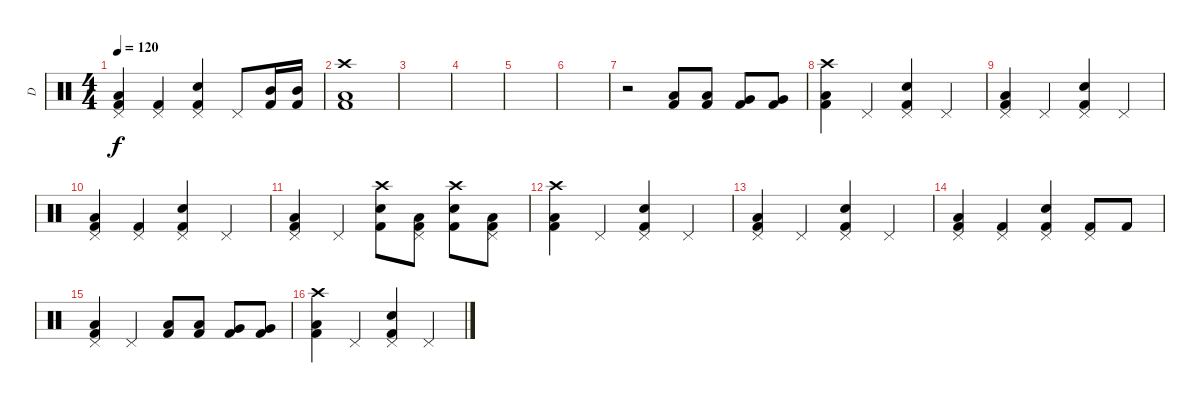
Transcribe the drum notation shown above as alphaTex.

\track ("D" "D") {instrument percussion}
\staff {score}
\articulation defaults
\ts (4 4)
\tempo 120
\clef neutral
\ks c
("Pedal Hi-Hat (hit)" "Low Floor Tom (hit)" "Kick (hit) 2").4{dy f} ("Pedal Hi-Hat (hit)" "Kick (hit) 2").4 ("Pedal Hi-Hat (hit)" "Snare (hit) 2" "Kick (hit) 2").4 "Pedal Hi-Hat (hit)".8 ("Mid Tom (hit)" "Kick (hit) 2").16 ("Mid Tom (hit)" "Kick (hit) 2").16 |
("Crash high (hit)" "Low Floor Tom (hit)" "Kick (hit) 2").1 |
|
|
|
|
r.2 ("Low Tom (hit)" "Kick (hit) 2").8 ("Low Tom (hit)" "Kick (hit) 2").8 ("Very Low Tom (hit)" "Kick (hit) 2").8 ("Very Low Tom (hit)" "Kick (hit) 2").8 |
("Crash high (hit)" "Low Floor Tom (hit)" "Kick (hit) 2").4 "Pedal Hi-Hat (hit)".4 ("Pedal Hi-Hat (hit)" "Snare (hit) 2" "Kick (hit) 2").4 "Pedal Hi-Hat (hit)".4 |
("Pedal Hi-Hat (hit)" "Low Floor Tom (hit)" "Kick (hit) 2").4 "Pedal Hi-Hat (hit)".4 ("Pedal Hi-Hat (hit)" "Snare (hit) 2" "Kick (hit) 2").4 "Pedal Hi-Hat (hit)".4 |
("Pedal Hi-Hat (hit)" "Low Floor Tom (hit)" "Kick (hit) 2").4 ("Pedal Hi-Hat (hit)" "Kick (hit) 2").4 ("Pedal Hi-Hat (hit)" "Snare (hit) 2" "Kick (hit) 2").4 "Pedal Hi-Hat (hit)".4 |
("Pedal Hi-Hat (hit)" "Low Floor Tom (hit)" "Kick (hit) 2").4 "Pedal Hi-Hat (hit)".4 ("Crash high (hit)" "Snare (hit) 2" "Kick (hit) 2").8 ("Pedal Hi-Hat (hit)" "Low Floor Tom (hit)" "Kick (hit) 2").8 ("Crash high (hit)" "Snare (hit) 2" "Kick (hit) 2").8 ("Pedal Hi-Hat (hit)" "Low Floor Tom (hit)" "Kick (hit) 2").8 |
("Crash high (hit)" "Low Floor Tom (hit)" "Kick (hit) 2").4 "Pedal Hi-Hat (hit)".4 ("Pedal Hi-Hat (hit)" "Snare (hit) 2" "Kick (hit) 2").4 "Pedal Hi-Hat (hit)".4 |
("Pedal Hi-Hat (hit)" "Low Floor Tom (hit)" "Kick (hit) 2").4 "Pedal Hi-Hat (hit)".4 ("Pedal Hi-Hat (hit)" "Snare (hit) 2" "Kick (hit) 2").4 "Pedal Hi-Hat (hit)".4 |
("Pedal Hi-Hat (hit)" "Low Floor Tom (hit)" "Kick (hit) 2").4 ("Pedal Hi-Hat (hit)" "Kick (hit) 2").4 ("Pedal Hi-Hat (hit)" "Snare (hit) 2" "Kick (hit) 2").4 ("Pedal Hi-Hat (hit)" "Kick (hit) 2").8 "Kick (hit) 2".8 |
("Pedal Hi-Hat (hit)" "Low Floor Tom (hit)" "Kick (hit) 2").4 "Pedal Hi-Hat (hit)".4 ("Low Tom (hit)" "Kick (hit) 2").8 ("Low Tom (hit)" "Kick (hit) 2").8 ("Very Low Tom (hit)" "Kick (hit) 2").8 ("Very Low Tom (hit)" "Kick (hit) 2").8 |
("Crash high (hit)" "Low Floor Tom (hit)" "Kick (hit) 2").4 "Pedal Hi-Hat (hit)".4 ("Pedal Hi-Hat (hit)" "Snare (hit) 2" "Kick (hit) 2").4 "Pedal Hi-Hat (hit)".4
